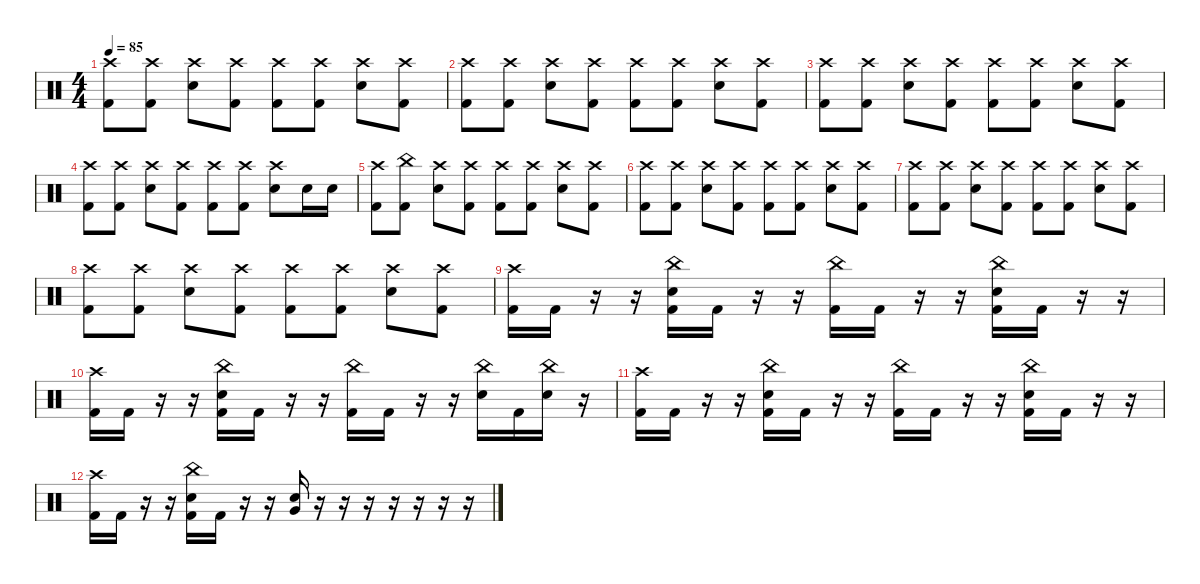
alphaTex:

\defaultSystemsLayout 4
\hideDynamics
\bracketExtendMode nobrackets
\singleTrackTrackNamePolicy hidden
\multiTrackTrackNamePolicy hidden
\firstSystemTrackNameMode fullname
\firstSystemTrackNameOrientation horizontal
\otherSystemsTrackNameOrientation horizontal
\track ("Drums" "drm.") {instrument percussion}
\staff {score}
\articulation defaults
\ts (4 4)
\tempo 85
\clef neutral
\ks c
("Crash high (hit)" "Kick (hit) 2").8{dy f beam Down} ("Crash high (hit)" "Kick (hit) 2").8{beam Down} ("Crash high (hit)" "Snare (hit) 2").8{beam Down} ("Crash high (hit)" "Kick (hit) 2").8{beam Down} ("Crash high (hit)" "Kick (hit) 2").8{beam Down} ("Crash high (hit)" "Kick (hit) 2").8{beam Down} ("Crash high (hit)" "Snare (hit) 2").8{beam Down} ("Crash high (hit)" "Kick (hit) 2").8{beam Down} |
("Crash high (hit)" "Kick (hit) 2").8{beam Down} ("Crash high (hit)" "Kick (hit) 2").8{beam Down} ("Crash high (hit)" "Snare (hit) 2").8{beam Down} ("Crash high (hit)" "Kick (hit) 2").8{beam Down} ("Crash high (hit)" "Kick (hit) 2").8{beam Down} ("Crash high (hit)" "Kick (hit) 2").8{beam Down} ("Crash high (hit)" "Snare (hit) 2").8{beam Down} ("Crash high (hit)" "Kick (hit) 2").8{beam Down} |
("Crash high (hit)" "Kick (hit) 2").8{beam Down} ("Crash high (hit)" "Kick (hit) 2").8{beam Down} ("Crash high (hit)" "Snare (hit) 2").8{beam Down} ("Crash high (hit)" "Kick (hit) 2").8{beam Down} ("Crash high (hit)" "Kick (hit) 2").8{beam Down} ("Crash high (hit)" "Kick (hit) 2").8{beam Down} ("Crash high (hit)" "Snare (hit) 2").8{beam Down} ("Crash high (hit)" "Kick (hit) 2").8{beam Down} |
("Crash high (hit)" "Kick (hit) 2").8{beam Down} ("Crash high (hit)" "Kick (hit) 2").8{beam Down} ("Crash high (hit)" "Snare (hit) 2").8{beam Down} ("Crash high (hit)" "Kick (hit) 2").8{beam Down} ("Crash high (hit)" "Kick (hit) 2").8{beam Down} ("Crash high (hit)" "Kick (hit) 2").8{beam Down} ("Crash high (hit)" "Snare (hit) 2").8{beam Down} "Snare (hit) 2".16{beam Down} "Snare (hit) 2".16{beam Down} |
("Crash high (hit)" "Kick (hit) 2").8{beam Down} ("China (hit)" "Kick (hit) 2").8{beam Down} ("Crash high (hit)" "Snare (hit) 2").8{beam Down} ("Crash high (hit)" "Kick (hit) 2").8{beam Down} ("Crash high (hit)" "Kick (hit) 2").8{beam Down} ("Crash high (hit)" "Kick (hit) 2").8{beam Down} ("Crash high (hit)" "Snare (hit) 2").8{beam Down} ("Crash high (hit)" "Kick (hit) 2").8{beam Down} |
("Crash high (hit)" "Kick (hit) 2").8{beam Down} ("Crash high (hit)" "Kick (hit) 2").8{beam Down} ("Crash high (hit)" "Snare (hit) 2").8{beam Down} ("Crash high (hit)" "Kick (hit) 2").8{beam Down} ("Crash high (hit)" "Kick (hit) 2").8{beam Down} ("Crash high (hit)" "Kick (hit) 2").8{beam Down} ("Crash high (hit)" "Snare (hit) 2").8{beam Down} ("Crash high (hit)" "Kick (hit) 2").8{beam Down} |
("Crash high (hit)" "Kick (hit) 2").8{beam Down} ("Crash high (hit)" "Kick (hit) 2").8{beam Down} ("Crash high (hit)" "Snare (hit) 2").8{beam Down} ("Crash high (hit)" "Kick (hit) 2").8{beam Down} ("Crash high (hit)" "Kick (hit) 2").8{beam Down} ("Crash high (hit)" "Kick (hit) 2").8{beam Down} ("Crash high (hit)" "Snare (hit) 2").8{beam Down} ("Crash high (hit)" "Kick (hit) 2").8{beam Down} |
("Crash high (hit)" "Kick (hit) 2").8{beam Down} ("Crash high (hit)" "Kick (hit) 2").8{beam Down} ("Crash high (hit)" "Snare (hit) 2").8{beam Down} ("Crash high (hit)" "Kick (hit) 2").8{beam Down} ("Crash high (hit)" "Kick (hit) 2").8{beam Down} ("Crash high (hit)" "Kick (hit) 2").8{beam Down} ("Crash high (hit)" "Snare (hit) 2").8{beam Down} ("Crash high (hit)" "Kick (hit) 2").8{beam Down} |
("Crash high (hit)" "Kick (hit) 2").16{beam Down} "Kick (hit) 2".16{beam Down} r.16{beam Down} r.16{beam Down} ("China (hit)" "Snare (hit) 2" "Kick (hit) 2").16{dy mf beam Down} "Kick (hit) 2".16{dy f beam Down} r.16{beam Down} r.16{beam Down} ("China (hit)" "Kick (hit) 2").16{dy mf beam Down} "Kick (hit) 2".16{dy f beam Down} r.16{beam Down} r.16{beam Down} ("China (hit)" "Snare (hit) 2" "Kick (hit) 2").16{dy mf beam Down} "Kick (hit) 2".16{dy f beam Down} r.16{beam Down} r.16{beam Down} |
("Crash high (hit)" "Kick (hit) 2").16{beam Down} "Kick (hit) 2".16{beam Down} r.16{beam Down} r.16{beam Down} ("China (hit)" "Snare (hit) 2" "Kick (hit) 2").16{dy mf beam Down} "Kick (hit) 2".16{dy f beam Down} r.16{beam Down} r.16{beam Down} ("China (hit)" "Kick (hit) 2").16{dy mf beam Down} "Kick (hit) 2".16{dy f beam Down} r.16{beam Down} r.16{beam Down} ("China (hit)" "Snare (hit) 2").16{dy mf beam Down} "Kick (hit) 2".16{dy f beam Down} ("China (hit)" "Snare (hit) 2").16{dy mf beam Down} r.16{beam Down} |
("Crash high (hit)" "Kick (hit) 2").16{dy f beam Down} "Kick (hit) 2".16{beam Down} r.16{beam Down} r.16{beam Down} ("China (hit)" "Snare (hit) 2" "Kick (hit) 2").16{dy mf beam Down} "Kick (hit) 2".16{dy f beam Down} r.16{beam Down} r.16{beam Down} ("China (hit)" "Kick (hit) 2").16{dy mf beam Down} "Kick (hit) 2".16{dy f beam Down} r.16{beam Down} r.16{beam Down} ("China (hit)" "Snare (hit) 2" "Kick (hit) 2").16{dy mf beam Down} "Kick (hit) 2".16{dy f beam Down} r.16{beam Down} r.16{beam Down} |
("Crash high (hit)" "Kick (hit) 2").16{beam Down} "Kick (hit) 2".16{beam Down} r.16{beam Down} r.16{beam Down} ("China (hit)" "Snare (hit) 2" "Kick (hit) 2").16{dy mf beam Down} "Kick (hit) 2".16{dy f beam Down} r.16{beam Down} r.16{beam Down} ("Snare (hit) 2" "Very Low Tom (hit)").16{beam Up} r.16{beam Up} r.16{beam Up} r.16{beam Up} r.16{beam Up} r.16{beam Up} r.16{beam Up} r.16{beam Up}
